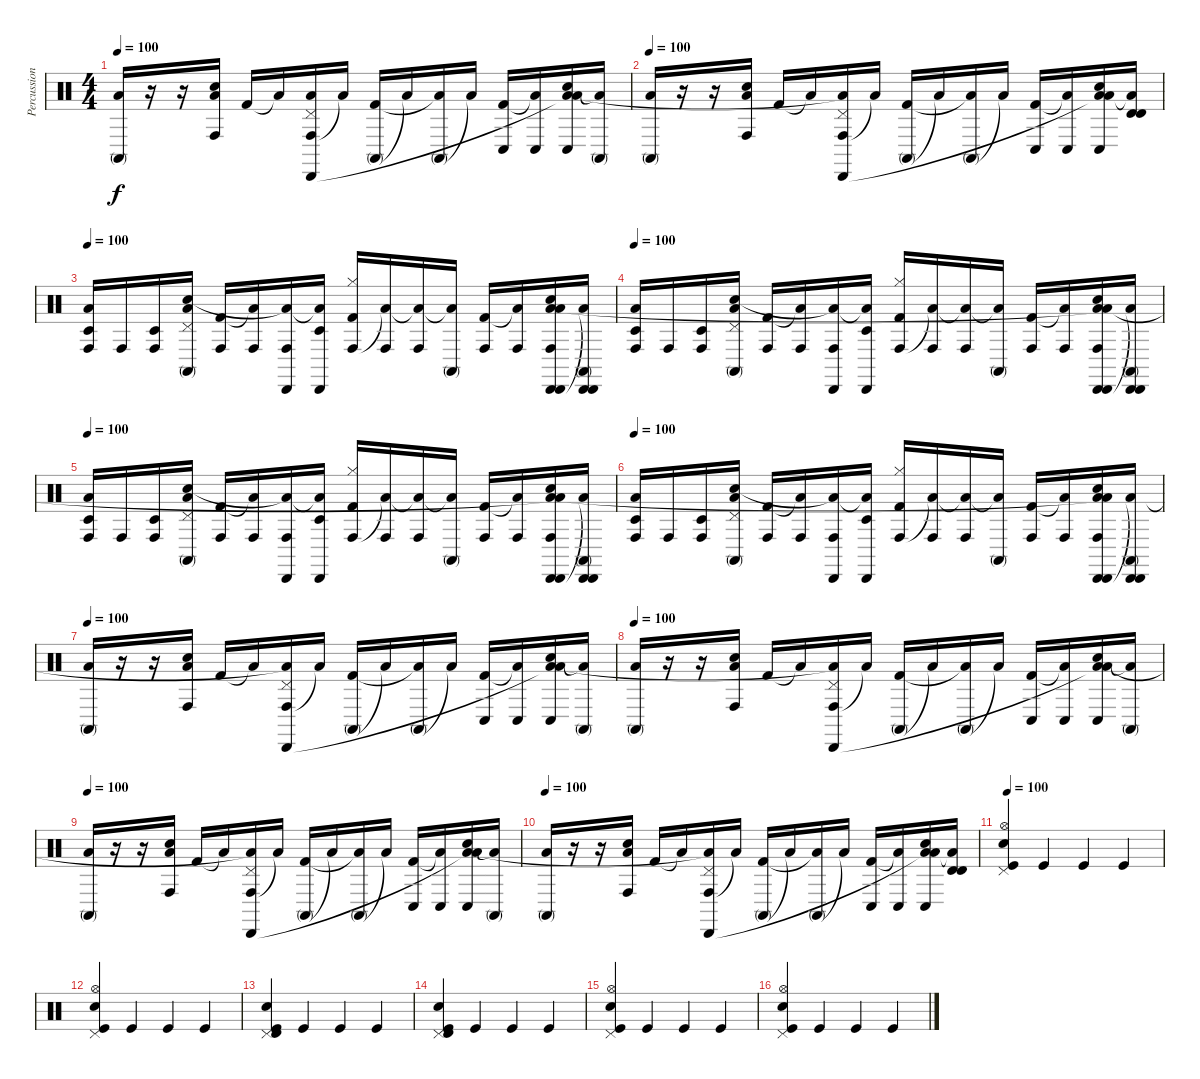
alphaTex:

\track ("Percussion" "Percussion") {instrument percussion}
\staff {score}
\articulation defaults
\ts (4 4)
\tempo 100
\clef neutral
\ks c
("Conga high (mute)" "Low Floor Tom (hit)").16{dy f} r.16 r.16 ("Conga high (hit)" "Hand Clap (hit)" "Low Tom (hit)").16 "Kick (hit) 2".16 "Low Tom (hit)"{t}.16 ("Conga high (hit)" "Pedal Hi-Hat (hit)" "Cabasa (hit)" "Low Tom (hit)"{t}).16 "Low Tom (hit)"{t}.16 ("Conga high (mute)" "Kick (hit) 2").16 "Low Tom (hit)"{t}.16 ("Conga high (mute)" "Low Tom (hit)"{t}).16 "Low Tom (hit)"{t}.16 ("Conga low (hit)" "Kick (hit) 2").16 ("Conga low (hit)" "Low Tom (hit)"{t}).16 ("Conga low (hit)" "Hand Clap (hit)" "Low Tom (hit)"{t} "Low Floor Tom (hit)").16 ("Conga high (mute)" "Low Tom (hit)"{t}).16 |
\tempo 100
("Conga high (mute)" "Low Floor Tom (hit)").16 r.16 r.16 ("Conga high (hit)" "Hand Clap (hit)" "Low Tom (hit)").16 "Kick (hit) 2".16 "Low Tom (hit)"{t}.16 ("Conga high (hit)" "Pedal Hi-Hat (hit)" "Cabasa (hit)" "Low Tom (hit)"{t}).16 "Low Tom (hit)"{t}.16 ("Conga high (mute)" "Kick (hit) 2").16 "Low Tom (hit)"{t}.16 ("Conga high (mute)" "Low Tom (hit)"{t}).16 "Low Tom (hit)"{t}.16 ("Conga low (hit)" "Kick (hit) 2").16 ("Conga low (hit)" "Low Tom (hit)"{t}).16 ("Conga low (hit)" "Hand Clap (hit)" "Low Tom (hit)"{t} "Low Floor Tom (hit)").16 ("Timbale high (hit)" "Timbale high (hit)" "Low Tom (hit)"{t}).16 |
\tempo 100
("Timbale low (hit)" "Conga high (hit)" "Low Floor Tom (hit)").16 "Conga high (hit)".16 ("Timbale low (hit)" "Conga high (hit)").16 ("Pedal Hi-Hat (hit)" "Conga high (mute)" "Hand Clap (hit)" "Low Tom (hit)").16 ("Conga high (hit)" "Kick (hit) 2").16 ("Conga high (hit)" "Low Tom (hit)"{t}).16 ("Conga high (hit)" "Cabasa (hit)" "Low Tom (hit)"{t}).16 ("Timbale low (hit)" "Cabasa (hit)" "Low Tom (hit)"{t}).16 ("Hi-Hat (closed)" "Conga high (hit)" "Kick (hit) 2").16 ("Conga high (hit)" "Low Tom (hit)"{t}).16 ("Conga high (hit)" "Low Tom (hit)"{t}).16 ("Conga high (mute)" "Low Tom (hit)"{t}).16 ("Conga high (hit)" "Kick (hit) 2").16 ("Conga high (hit)" "Low Tom (hit)"{t}).16 ("Cabasa (hit)" "Conga high (hit)" "Hand Clap (hit)" "Cabasa (hit)" "Low Tom (hit)" "Low Floor Tom (hit)").16 ("Cabasa (hit)" "Conga high (mute)" "Cabasa (hit)" "Low Tom (hit)"{t}).16 |
\tempo 100
("Timbale low (hit)" "Conga high (hit)" "Low Floor Tom (hit)").16 "Conga high (hit)".16 ("Timbale low (hit)" "Conga high (hit)").16 ("Pedal Hi-Hat (hit)" "Conga high (mute)" "Hand Clap (hit)" "Low Tom (hit)").16 ("Conga high (hit)" "Kick (hit) 2").16 ("Conga high (hit)" "Low Tom (hit)"{t}).16 ("Conga high (hit)" "Cabasa (hit)" "Low Tom (hit)"{t}).16 ("Timbale low (hit)" "Cabasa (hit)" "Low Tom (hit)"{t}).16 ("Hi-Hat (closed)" "Conga high (hit)" "Kick (hit) 2").16 ("Conga high (hit)" "Low Tom (hit)"{t}).16 ("Conga high (hit)" "Low Tom (hit)"{t}).16 ("Conga high (mute)" "Low Tom (hit)"{t}).16 ("Conga high (hit)" "Kick (hit) 2").16 ("Conga high (hit)" "Low Tom (hit)"{t}).16 ("Cabasa (hit)" "Conga high (hit)" "Hand Clap (hit)" "Cabasa (hit)" "Low Tom (hit)"{t} "Low Floor Tom (hit)").16 ("Cabasa (hit)" "Conga high (mute)" "Cabasa (hit)" "Low Tom (hit)"{t}).16 |
\tempo 100
("Timbale low (hit)" "Conga high (hit)" "Low Floor Tom (hit)").16 "Conga high (hit)".16 ("Timbale low (hit)" "Conga high (hit)").16 ("Pedal Hi-Hat (hit)" "Conga high (mute)" "Hand Clap (hit)" "Low Tom (hit)").16 ("Conga high (hit)" "Kick (hit) 2").16 ("Conga high (hit)" "Low Tom (hit)"{t}).16 ("Conga high (hit)" "Cabasa (hit)" "Low Tom (hit)"{t}).16 ("Timbale low (hit)" "Cabasa (hit)" "Low Tom (hit)"{t}).16 ("Hi-Hat (closed)" "Conga high (hit)" "Kick (hit) 2").16 ("Conga high (hit)" "Low Tom (hit)"{t}).16 ("Conga high (hit)" "Low Tom (hit)"{t}).16 ("Conga high (mute)" "Low Tom (hit)"{t}).16 ("Conga high (hit)" "Kick (hit) 2").16 ("Conga high (hit)" "Low Tom (hit)"{t}).16 ("Cabasa (hit)" "Conga high (hit)" "Hand Clap (hit)" "Cabasa (hit)" "Low Tom (hit)"{t} "Low Floor Tom (hit)").16 ("Cabasa (hit)" "Conga high (mute)" "Cabasa (hit)" "Low Tom (hit)"{t}).16 |
\tempo 100
("Timbale low (hit)" "Conga high (hit)" "Low Floor Tom (hit)").16 "Conga high (hit)".16 ("Timbale low (hit)" "Conga high (hit)").16 ("Pedal Hi-Hat (hit)" "Conga high (mute)" "Hand Clap (hit)" "Low Tom (hit)").16 ("Conga high (hit)" "Kick (hit) 2").16 ("Conga high (hit)" "Low Tom (hit)"{t}).16 ("Conga high (hit)" "Cabasa (hit)" "Low Tom (hit)"{t}).16 ("Timbale low (hit)" "Cabasa (hit)" "Low Tom (hit)"{t}).16 ("Hi-Hat (closed)" "Conga high (hit)" "Kick (hit) 2").16 ("Conga high (hit)" "Low Tom (hit)"{t}).16 ("Conga high (hit)" "Low Tom (hit)"{t}).16 ("Conga high (mute)" "Low Tom (hit)"{t}).16 ("Conga high (hit)" "Kick (hit) 2").16 ("Conga high (hit)" "Low Tom (hit)"{t}).16 ("Cabasa (hit)" "Conga high (hit)" "Hand Clap (hit)" "Cabasa (hit)" "Low Tom (hit)"{t} "Low Floor Tom (hit)").16 ("Cabasa (hit)" "Conga high (mute)" "Cabasa (hit)" "Low Tom (hit)"{t}).16 |
\tempo 100
("Conga high (mute)" "Low Floor Tom (hit)").16 r.16 r.16 ("Conga high (hit)" "Hand Clap (hit)" "Low Tom (hit)").16 "Kick (hit) 2".16 "Low Tom (hit)"{t}.16 ("Conga high (hit)" "Pedal Hi-Hat (hit)" "Cabasa (hit)" "Low Tom (hit)"{t}).16 "Low Tom (hit)"{t}.16 ("Conga high (mute)" "Kick (hit) 2").16 "Low Tom (hit)"{t}.16 ("Conga high (mute)" "Low Tom (hit)"{t}).16 "Low Tom (hit)"{t}.16 ("Conga low (hit)" "Kick (hit) 2").16 ("Conga low (hit)" "Low Tom (hit)"{t}).16 ("Conga low (hit)" "Hand Clap (hit)" "Low Tom (hit)"{t} "Low Floor Tom (hit)").16 ("Conga high (mute)" "Low Tom (hit)"{t}).16 |
\tempo 100
("Conga high (mute)" "Low Floor Tom (hit)").16 r.16 r.16 ("Conga high (hit)" "Hand Clap (hit)" "Low Tom (hit)").16 "Kick (hit) 2".16 "Low Tom (hit)"{t}.16 ("Conga high (hit)" "Pedal Hi-Hat (hit)" "Cabasa (hit)" "Low Tom (hit)"{t}).16 "Low Tom (hit)"{t}.16 ("Conga high (mute)" "Kick (hit) 2").16 "Low Tom (hit)"{t}.16 ("Conga high (mute)" "Low Tom (hit)"{t}).16 "Low Tom (hit)"{t}.16 ("Conga low (hit)" "Kick (hit) 2").16 ("Conga low (hit)" "Low Tom (hit)"{t}).16 ("Conga low (hit)" "Hand Clap (hit)" "Low Tom (hit)"{t} "Low Floor Tom (hit)").16 ("Conga high (mute)" "Low Tom (hit)"{t}).16 |
\tempo 100
("Conga high (mute)" "Low Floor Tom (hit)").16 r.16 r.16 ("Conga high (hit)" "Hand Clap (hit)" "Low Tom (hit)").16 "Kick (hit) 2".16 "Low Tom (hit)"{t}.16 ("Conga high (hit)" "Pedal Hi-Hat (hit)" "Cabasa (hit)" "Low Tom (hit)"{t}).16 "Low Tom (hit)"{t}.16 ("Conga high (mute)" "Kick (hit) 2").16 "Low Tom (hit)"{t}.16 ("Conga high (mute)" "Low Tom (hit)"{t}).16 "Low Tom (hit)"{t}.16 ("Conga low (hit)" "Kick (hit) 2").16 ("Conga low (hit)" "Low Tom (hit)"{t}).16 ("Conga low (hit)" "Hand Clap (hit)" "Low Tom (hit)"{t} "Low Floor Tom (hit)").16 ("Conga high (mute)" "Low Tom (hit)"{t}).16 |
\tempo 100
("Conga high (mute)" "Low Floor Tom (hit)").16 r.16 r.16 ("Conga high (hit)" "Hand Clap (hit)" "Low Tom (hit)").16 "Kick (hit) 2".16 "Low Tom (hit)"{t}.16 ("Conga high (hit)" "Pedal Hi-Hat (hit)" "Cabasa (hit)" "Low Tom (hit)"{t}).16 "Low Tom (hit)"{t}.16 ("Conga high (mute)" "Kick (hit) 2").16 "Low Tom (hit)"{t}.16 ("Conga high (mute)" "Low Tom (hit)"{t}).16 "Low Tom (hit)"{t}.16 ("Conga low (hit)" "Kick (hit) 2").16 ("Conga low (hit)" "Low Tom (hit)"{t}).16 ("Conga low (hit)" "Hand Clap (hit)" "Low Tom (hit)"{t} "Low Floor Tom (hit)").16 ("Timbale high (hit)" "Timbale high (hit)" "Low Tom (hit)"{t}).16 |
\tempo 100
("Pedal Hi-Hat (hit)" "Hand Clap (hit)" "Hi-Hat (open)" "Kick (hit)").4 "Kick (hit)".4 "Kick (hit)".4 "Kick (hit)".4 |
("Pedal Hi-Hat (hit)" "Hand Clap (hit)" "Hi-Hat (open)" "Kick (hit)").4 "Kick (hit)".4 "Kick (hit)".4 "Kick (hit)".4 |
("Pedal Hi-Hat (hit)" "Hand Clap (hit)" "Timbale high (hit)" "Kick (hit)").4 "Kick (hit)".4 "Kick (hit)".4 "Kick (hit)".4 |
("Pedal Hi-Hat (hit)" "Hand Clap (hit)" "Timbale high (hit)" "Kick (hit)").4 "Kick (hit)".4 "Kick (hit)".4 "Kick (hit)".4 |
("Pedal Hi-Hat (hit)" "Hand Clap (hit)" "Hi-Hat (open)" "Kick (hit)").4 "Kick (hit)".4 "Kick (hit)".4 "Kick (hit)".4 |
("Pedal Hi-Hat (hit)" "Hand Clap (hit)" "Hi-Hat (open)" "Kick (hit)").4 "Kick (hit)".4 "Kick (hit)".4 "Kick (hit)".4
